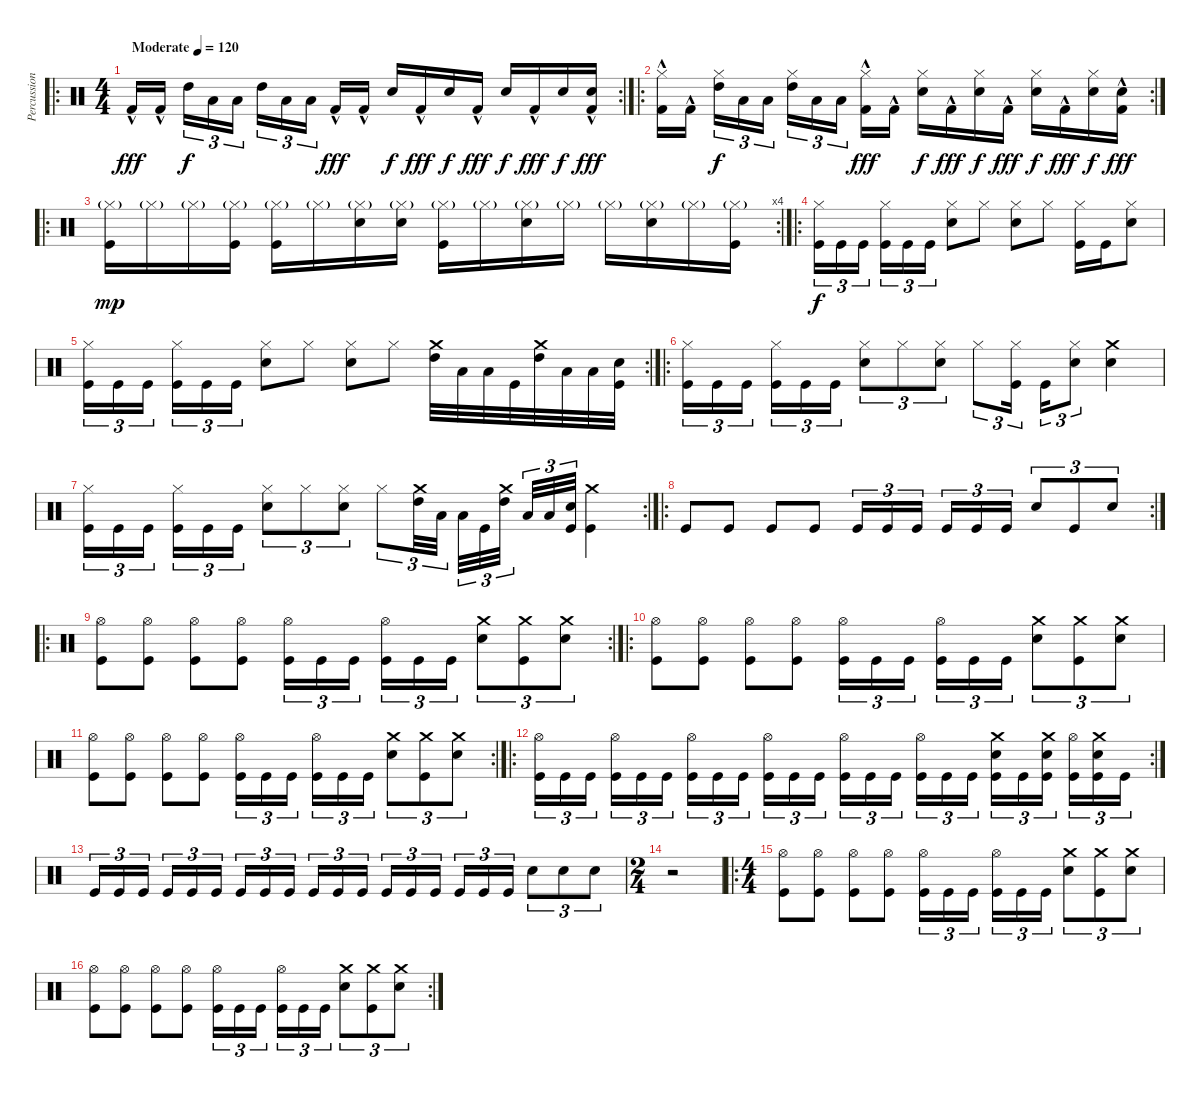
\track ("Percussion" "Percussion") {instrument percussion}
\staff {score}
\articulation defaults
\ro
\rc 2
\ts (4 4)
\tempo (120 "Moderate")
\clef neutral
\ks c "Kick (hit) 2"{hac}.16{dy fff} "Kick (hit) 2"{hac}.16{beam splitsecondary} "High Tom (hit)".16{tu (3 2) dy f} "Low Tom (hit)".16{tu (3 2)} "Low Floor Tom (hit)".16{tu (3 2)} "High Tom (hit)".16{tu (3 2)} "Low Tom (hit)".16{tu (3 2)} "Low Floor Tom (hit)".16{tu (3 2) beam splitsecondary} "Kick (hit) 2"{hac}.16{dy fff} "Kick (hit) 2"{hac}.16 "Snare (hit) 2".16{dy f} "Kick (hit) 2"{hac}.16{dy fff} "Snare (hit) 2".16{dy f} "Kick (hit) 2"{hac}.16{dy fff} "Snare (hit) 2".16{dy f} "Kick (hit) 2"{hac}.16{dy fff} "Snare (hit) 2".16{dy f}
("Snare (hit) 2" "Kick (hit) 2"{hac}).16{dy fff} |
\ro
\rc 2
("Hi-Hat (closed)" "Kick (hit) 2"{hac}).16 "Kick (hit) 2"{hac}.16{beam splitsecondary} ("Hi-Hat (closed)" "High Tom (hit)").16{tu (3 2) dy f} "Low Tom (hit)".16{tu (3 2)} "Low Floor Tom (hit)".16{tu (3 2)} ("Hi-Hat (closed)" "High Tom (hit)").16{tu (3 2)} "Low Tom (hit)".16{tu (3 2)} "Low Floor Tom (hit)".16{tu (3 2) beam splitsecondary} ("Hi-Hat (closed)" "Kick (hit) 2"{hac}).16{dy fff} "Kick (hit) 2"{hac}.16 ("Hi-Hat (closed)" "Snare (hit) 2").16{dy f} "Kick (hit) 2"{hac}.16{dy fff} ("Hi-Hat (closed)" "Snare (hit) 2").16{dy f} "Kick (hit) 2"{hac}.16{dy fff} ("Hi-Hat (closed)" "Snare (hit) 2").16{dy f} "Kick (hit) 2"{hac}.16{dy fff} ("Hi-Hat (closed)" "Snare (hit) 2").16{dy f} ("Snare (hit) 2" "Kick (hit) 2"{hac}).16{dy fff} |
\ro
\rc 4
("Hi-Hat (closed)"{g} "Kick (hit)").16{dy mp} "Hi-Hat (closed)"{g}.16 "Hi-Hat (closed)"{g}.16 ("Hi-Hat (closed)"{g} "Kick (hit)").16 ("Hi-Hat (closed)"{g} "Kick (hit)").16 "Hi-Hat (closed)"{g}.16 ("Hi-Hat (closed)"{g} "Snare (hit) 2").16 ("Hi-Hat (closed)"{g} "Snare (hit) 2").16 ("Hi-Hat (closed)"{g} "Kick (hit)").16 "Hi-Hat (closed)"{g}.16 ("Hi-Hat (closed)"{g} "Snare (hit) 2").16 "Hi-Hat (closed)"{g}.16 "Hi-Hat (closed)"{g}.16 ("Hi-Hat (closed)"{g} "Snare (hit) 2").16 "Hi-Hat (closed)"{g}.16 ("Hi-Hat (closed)"{g} "Kick (hit)").16 |
\ro
("Hi-Hat (closed)" "Kick (hit)").16{tu (3 2) dy f} "Kick (hit)".16{tu (3 2)} "Kick (hit)".16{tu (3 2) beam splitsecondary} ("Hi-Hat (closed)" "Kick (hit)").16{tu (3 2)} "Kick (hit)".16{tu (3 2)} "Kick (hit)".16{tu (3 2)} ("Hi-Hat (closed)" "Snare (hit) 2").8 "Hi-Hat (closed)".8 ("Hi-Hat (closed)" "Snare (hit) 2").8 "Hi-Hat (closed)".8 ("Hi-Hat (closed)" "Kick (hit)").16 "Kick (hit)".16 ("Hi-Hat (closed)" "Snare (hit) 2").8 |
\rc 2
("Hi-Hat (closed)" "Kick (hit)").16{tu (3 2)} "Kick (hit)".16{tu (3 2)} "Kick (hit)".16{tu (3 2) beam splitsecondary} ("Hi-Hat (closed)" "Kick (hit)").16{tu (3 2)} "Kick (hit)".16{tu (3 2)} "Kick (hit)".16{tu (3 2)} ("Hi-Hat (closed)" "Snare (hit) 2").8 "Hi-Hat (closed)".8 ("Hi-Hat (closed)" "Snare (hit) 2").8 "Hi-Hat (closed)".8 ("Crash medium (hit)" "High Tom (hit)").32 "Low Tom (hit)".32 "Low Floor Tom (hit)".32 "Kick (hit)".32 ("Crash medium (hit)" "High Tom (hit)").32 "Low Tom (hit)".32 "Low Floor Tom (hit)".32 ("Snare (hit) 2" "Kick (hit)").32 |
\ro
("Hi-Hat (closed)" "Kick (hit)").16{tu (3 2)} "Kick (hit)".16{tu (3 2)} "Kick (hit)".16{tu (3 2) beam splitsecondary} ("Hi-Hat (closed)" "Kick (hit)").16{tu (3 2)} "Kick (hit)".16{tu (3 2)} "Kick (hit)".16{tu (3 2)} ("Hi-Hat (closed)" "Snare (hit) 2").8{tu (3 2)} "Hi-Hat (closed)".8{tu (3 2)} ("Hi-Hat (closed)" "Snare (hit) 2").8{tu (3 2)} "Hi-Hat (closed)".8{tu (3 2)} ("Hi-Hat (closed)" "Kick (hit)").16{tu (3 2) beam splitsecondary} "Kick (hit)".16{tu (3 2)} ("Hi-Hat (closed)" "Snare (hit) 2").8{tu (3 2)} ("Crash medium (hit)" "Snare (hit) 2").4 |
\rc 2
("Hi-Hat (closed)" "Kick (hit)").16{tu (3 2)} "Kick (hit)".16{tu (3 2)} "Kick (hit)".16{tu (3 2) beam splitsecondary} ("Hi-Hat (closed)" "Kick (hit)").16{tu (3 2)} "Kick (hit)".16{tu (3 2)} "Kick (hit)".16{tu (3 2)} ("Hi-Hat (closed)" "Snare (hit) 2").8{tu (3 2)} "Hi-Hat (closed)".8{tu (3 2)} ("Hi-Hat (closed)" "Snare (hit) 2").8{tu (3 2)} "Hi-Hat (closed)".8{tu (3 2)} ("Crash medium (hit)" "High Tom (hit)").32{tu (3 2)} "Low Tom (hit)".32{tu (3 2) beam splitsecondary} "Low Floor Tom (hit)".32{tu (3 2)} "Kick (hit)".32{tu (3 2)} ("Crash medium (hit)" "High Tom (hit)").32{tu (3 2) beam splitsecondary} "Low Tom (hit)".32{tu (3 2)} "Low Floor Tom (hit)".32{tu (3 2)} ("Snare (hit) 2" "Kick (hit)").32{tu (3 2)} ("Crash medium (hit)" "Kick (hit)").4 |
\ro
\rc 2 "Kick (hit)".8 "Kick (hit)".8 "Kick (hit)".8 "Kick (hit)".8 "Kick (hit)".16{tu (3 2)} "Kick (hit)".16{tu (3 2)} "Kick (hit)".16{tu (3 2) beam splitsecondary} "Kick (hit)".16{tu (3 2)} "Kick (hit)".16{tu (3 2)} "Kick (hit)".16{tu (3 2)} "Snare (hit) 2".8{tu (3 2)} "Kick (hit)".8{tu (3 2)} "Snare (hit) 2".8{tu (3 2)}
|
\ro
\rc 2
("Hi-Hat (open)" "Kick (hit)").8 ("Hi-Hat (open)" "Kick (hit)").8 ("Hi-Hat (open)" "Kick (hit)").8 ("Hi-Hat (open)" "Kick (hit)").8 ("Hi-Hat (open)" "Kick (hit)").16{tu (3 2)} "Kick (hit)".16{tu (3 2)} "Kick (hit)".16{tu (3 2) beam splitsecondary} ("Hi-Hat (open)" "Kick (hit)").16{tu (3 2)} "Kick (hit)".16{tu (3 2)} "Kick (hit)".16{tu (3 2)} ("Crash medium (hit)" "Snare (hit) 2").8{tu (3 2)} ("Crash medium (hit)" "Kick (hit)").8{tu (3 2)} ("Crash medium (hit)" "Snare (hit) 2").8{tu (3 2)} |
\ro
("Hi-Hat (open)" "Kick (hit)").8 ("Hi-Hat (open)" "Kick (hit)").8 ("Hi-Hat (open)" "Kick (hit)").8 ("Hi-Hat (open)" "Kick (hit)").8 ("Hi-Hat (open)" "Kick (hit)").16{tu (3 2)} "Kick (hit)".16{tu (3 2)} "Kick (hit)".16{tu (3 2) beam splitsecondary} ("Hi-Hat (open)" "Kick (hit)").16{tu (3 2)} "Kick (hit)".16{tu (3 2)} "Kick (hit)".16{tu (3 2)} ("Crash medium (hit)" "Snare (hit) 2").8{tu (3 2)} ("Crash medium (hit)" "Kick (hit)").8{tu (3 2)} ("Crash medium (hit)" "Snare (hit) 2").8{tu (3 2)} |
\rc 2
("Hi-Hat (open)" "Kick (hit)").8 ("Hi-Hat (open)" "Kick (hit)").8 ("Hi-Hat (open)" "Kick (hit)").8 ("Hi-Hat (open)" "Kick (hit)").8 ("Hi-Hat (open)" "Kick (hit)").16{tu (3 2)} "Kick (hit)".16{tu (3 2)} "Kick (hit)".16{tu (3 2) beam splitsecondary} ("Hi-Hat (open)" "Kick (hit)").16{tu (3 2)} "Kick (hit)".16{tu (3 2)} "Kick (hit)".16{tu (3 2)} ("Crash medium (hit)" "Snare (hit) 2").8{tu (3 2)} ("Crash medium (hit)" "Kick (hit)").8{tu (3 2)} ("Crash medium (hit)" "Snare (hit) 2").8{tu (3 2)} |
\ro
\rc 2
("Hi-Hat (open)" "Kick (hit)").16{tu (3 2)} "Kick (hit)".16{tu (3 2)} "Kick (hit)".16{tu (3 2) beam splitsecondary} ("Hi-Hat (open)" "Kick (hit)").16{tu (3 2)} "Kick (hit)".16{tu (3 2)} "Kick (hit)".16{tu (3 2)} ("Hi-Hat (open)" "Kick (hit)").16{tu (3 2)} "Kick (hit)".16{tu (3 2)} "Kick (hit)".16{tu (3 2) beam splitsecondary} ("Hi-Hat (open)" "Kick (hit)").16{tu (3 2)} "Kick (hit)".16{tu (3 2)} "Kick (hit)".16{tu (3 2)} ("Hi-Hat (open)" "Kick (hit)").16{tu (3 2)} "Kick (hit)".16{tu (3 2)} "Kick (hit)".16{tu (3 2) beam splitsecondary} ("Hi-Hat (open)" "Kick (hit)").16{tu (3 2)} "Kick (hit)".16{tu (3 2)} "Kick (hit)".16{tu (3 2)} ("Crash medium (hit)" "Snare (hit) 2" "Kick (hit)").16{tu (3 2)} "Kick (hit)".16{tu (3 2)} ("Crash medium (hit)" "Snare (hit) 2" "Kick (hit)").16{tu (3 2) beam splitsecondary} ("Hi-Hat (open)" "Kick (hit)").16{tu (3 2)} ("Crash medium (hit)" "Snare (hit) 2" "Kick (hit)").16{tu (3 2)} "Kick (hit)".16{tu (3 2)} |
"Kick (hit)".16{tu (3 2)} "Kick (hit)".16{tu (3 2)} "Kick (hit)".16{tu (3 2) beam splitsecondary} "Kick (hit)".16{tu (3 2)} "Kick (hit)".16{tu (3 2)} "Kick (hit)".16{tu (3 2)} "Kick (hit)".16{tu (3 2)} "Kick (hit)".16{tu (3 2)} "Kick (hit)".16{tu (3 2) beam splitsecondary} "Kick (hit)".16{tu (3 2)} "Kick (hit)".16{tu (3 2)} "Kick (hit)".16{tu (3 2)} "Kick (hit)".16{tu (3 2)} "Kick (hit)".16{tu (3 2)} "Kick (hit)".16{tu (3 2) beam splitsecondary} "Kick (hit)".16{tu (3 2)} "Kick (hit)".16{tu (3 2)} "Kick (hit)".16{tu (3 2)} "Snare (hit) 2".8{tu (3 2)} "Snare (hit) 2".8{tu (3 2)} "Snare (hit) 2".8{tu (3 2)} |
\ts (2 4)
r.2 |
\ro
\ts (4 4)
("Hi-Hat (open)" "Kick (hit)").8 ("Hi-Hat (open)" "Kick (hit)").8 ("Hi-Hat (open)" "Kick (hit)").8 ("Hi-Hat (open)" "Kick (hit)").8 ("Hi-Hat (open)" "Kick (hit)").16{tu (3 2)} "Kick (hit)".16{tu (3 2)} "Kick (hit)".16{tu (3 2) beam splitsecondary} ("Hi-Hat (open)" "Kick (hit)").16{tu (3 2)} "Kick (hit)".16{tu (3 2)} "Kick (hit)".16{tu (3 2)} ("Crash medium (hit)" "Snare (hit) 2").8{tu (3 2)} ("Crash medium (hit)" "Kick (hit)").8{tu (3 2)} ("Crash medium (hit)" "Snare (hit) 2").8{tu (3 2)} |
\rc 2
("Hi-Hat (open)" "Kick (hit)").8 ("Hi-Hat (open)" "Kick (hit)").8 ("Hi-Hat (open)" "Kick (hit)").8 ("Hi-Hat (open)" "Kick (hit)").8 ("Hi-Hat (open)" "Kick (hit)").16{tu (3 2)} "Kick (hit)".16{tu (3 2)} "Kick (hit)".16{tu (3 2) beam splitsecondary} ("Hi-Hat (open)" "Kick (hit)").16{tu (3 2)} "Kick (hit)".16{tu (3 2)} "Kick (hit)".16{tu (3 2)} ("Crash medium (hit)" "Snare (hit) 2").8{tu (3 2)} ("Crash medium (hit)" "Kick (hit)").8{tu (3 2)} ("Crash medium (hit)" "Snare (hit) 2").8{tu (3 2)}
